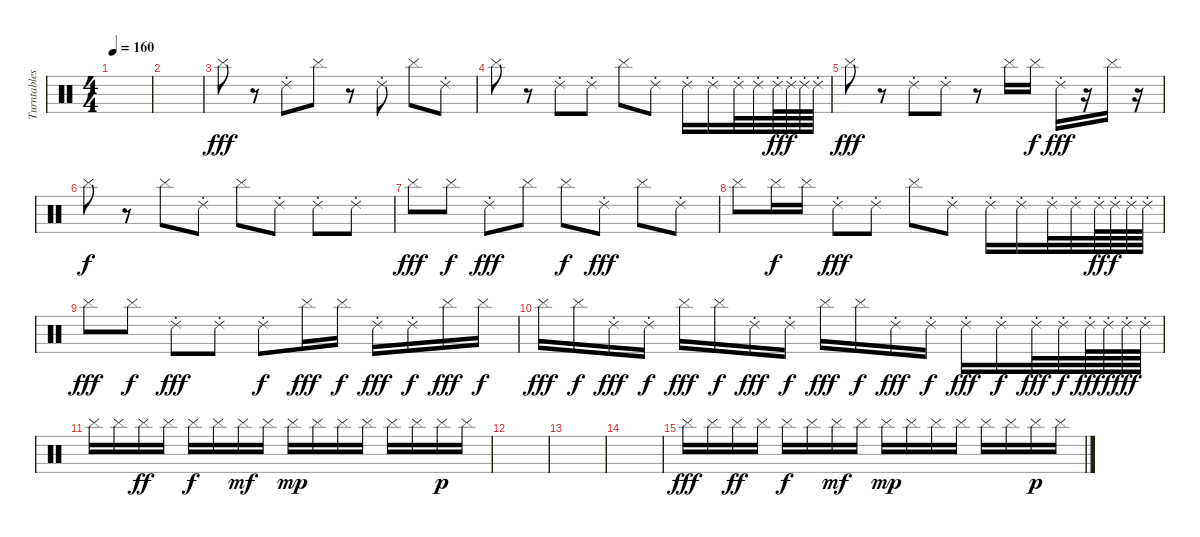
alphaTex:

\track ("Turntables" "Turntables") {instrument percussion}
\staff {score}
\articulation defaults
\ts (4 4)
\tempo 160
\clef neutral
\ks c
|
|
"Cymbal (hit)".8{dy fff} r.8 "Ride (choke) 2".8 "Cymbal (hit)".8 r.8 "Ride (choke) 2".8 "Cymbal (hit)".8 "Ride (choke) 2".8 |
"Cymbal (hit)".8 r.8 "Ride (choke) 2".8 "Ride (choke) 2".8 "Cymbal (hit)".8 "Ride (choke) 2".8 "Ride (choke) 2".16 "Ride (choke) 2".16 "Ride (choke) 2".32 "Ride (choke) 2".32 "Ride (choke) 2".64{dy ff} "Ride (choke) 2".64{dy f} "Ride (choke) 2".64 "Ride (choke) 2".64 |
"Cymbal (hit)".8{dy fff} r.8 "Ride (choke) 2".8 "Ride (choke) 2".8 r.8 "Cymbal (hit)".16 "Cymbal (hit)".16{dy f} "Ride (choke) 2".16{dy fff} r.16 "Cymbal (hit)".16 r.16 |
"Cymbal (hit)".8{dy f} r.8 "Cymbal (hit)".8 "Ride (choke) 2".8 "Cymbal (hit)".8 "Ride (choke) 2".8 "Ride (choke) 2".8 "Ride (choke) 2".8 |
"Cymbal (hit)".8{dy fff} "Cymbal (hit)".8{dy f} "Ride (choke) 2".8{dy fff} "Cymbal (hit)".8 "Cymbal (hit)".8{dy f} "Ride (choke) 2".8{dy fff} "Cymbal (hit)".8 "Ride (choke) 2".8 |
"Cymbal (hit)".8 "Cymbal (hit)".16{dy f} "Cymbal (hit)".16 "Ride (choke) 2".8{dy fff} "Ride (choke) 2".8 "Cymbal (hit)".8 "Ride (choke) 2".8 "Ride (choke) 2".16 "Ride (choke) 2".16 "Ride (choke) 2".32 "Ride (choke) 2".32 "Ride (choke) 2".64{dy ff} "Ride (choke) 2".64{dy f} "Ride (choke) 2".64 "Ride (choke) 2".64 |
"Cymbal (hit)".8{dy fff} "Cymbal (hit)".8{dy f} "Ride (choke) 2".8{dy fff} "Ride (choke) 2".8 "Ride (choke) 2".8{dy f} "Cymbal (hit)".16{dy fff} "Cymbal (hit)".16{dy f} "Ride (choke) 2".16{dy fff} "Ride (choke) 2".16{dy f} "Cymbal (hit)".16{dy fff} "Cymbal (hit)".16{dy f} |
"Cymbal (hit)".16{dy fff} "Cymbal (hit)".16{dy f} "Ride (choke) 2".16{dy fff} "Ride (choke) 2".16{dy f} "Cymbal (hit)".16{dy fff} "Cymbal (hit)".16{dy f} "Ride (choke) 2".16{dy fff} "Ride (choke) 2".16{dy f} "Cymbal (hit)".16{dy fff} "Cymbal (hit)".16{dy f} "Ride (choke) 2".16{dy fff} "Ride (choke) 2".16{dy f} "Ride (choke) 2".16{dy fff} "Ride (choke) 2".16{dy f} "Ride (choke) 2".32{dy fff} "Ride (choke) 2".32{dy f} "Ride (choke) 2".64{dy fff} "Ride (choke) 2".64{dy f} "Ride (choke) 2".64{dy fff} "Ride (choke) 2".64 |
"Cymbal (hit)".16 "Cymbal (hit)".16 "Cymbal (hit)".16{dy ff} "Cymbal (hit)".16 "Cymbal (hit)".16{dy f} "Cymbal (hit)".16 "Cymbal (hit)".16{dy mf} "Cymbal (hit)".16 "Cymbal (hit)".16{dy mp} "Cymbal (hit)".16 "Cymbal (hit)".16 "Cymbal (hit)".16 "Cymbal (hit)".16 "Cymbal (hit)".16 "Cymbal (hit)".16{dy p} "Cymbal (hit)".16 |
|
|
|
"Cymbal (hit)".16{dy fff} "Cymbal (hit)".16 "Cymbal (hit)".16{dy ff} "Cymbal (hit)".16 "Cymbal (hit)".16{dy f} "Cymbal (hit)".16 "Cymbal (hit)".16{dy mf} "Cymbal (hit)".16 "Cymbal (hit)".16{dy mp} "Cymbal (hit)".16 "Cymbal (hit)".16 "Cymbal (hit)".16 "Cymbal (hit)".16 "Cymbal (hit)".16 "Cymbal (hit)".16{dy p} "Cymbal (hit)".16
